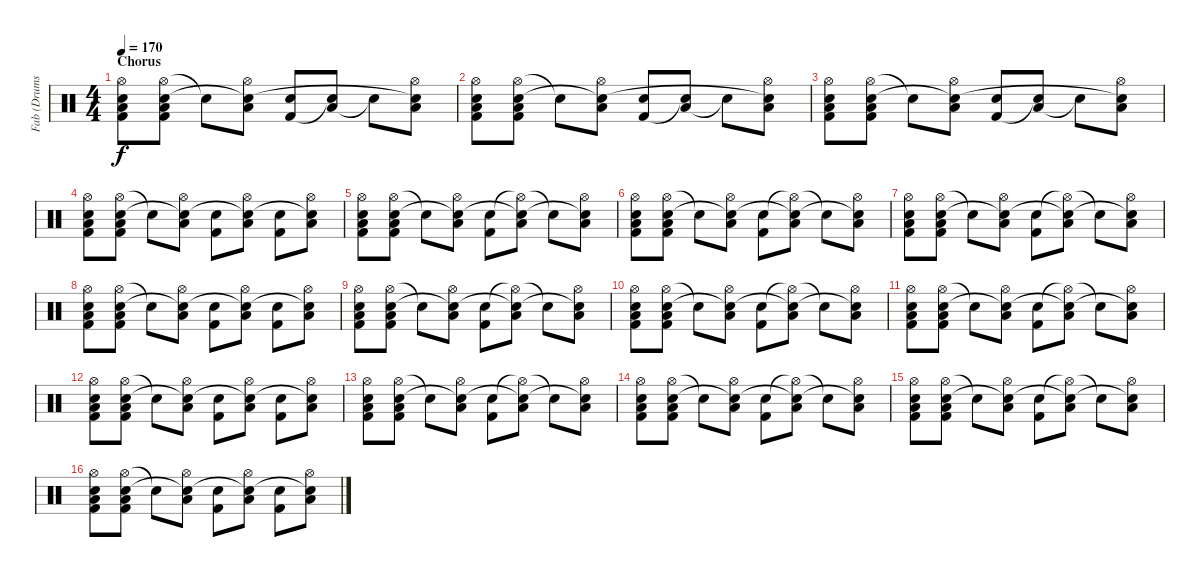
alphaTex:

\track ("Fab (Drums)" "Fab (Drums") {instrument percussion}
\staff {score}
\articulation defaults
\ts (4 4)
\section ("" "Chorus")
\tempo 170
\clef neutral
\ks c
("Hi-Hat (open)" "Low Floor Tom (hit)" "Electric Snare (hit)" "Kick (hit) 2").8{dy f} ("Hi-Hat (open)" "Low Floor Tom (hit)" "Electric Snare (hit)" "Kick (hit) 2").8 "Snare (hit)"{t}.8 ("Hi-Hat (open)" "Low Floor Tom (hit)" "Snare (hit)"{t}).8 ("Electric Snare (hit)" "Kick (hit) 2").8 ("Low Floor Tom (hit)" "Snare (hit)"{t}).8 "Snare (hit)"{t}.8 ("Hi-Hat (open)" "Low Floor Tom (hit)" "Snare (hit)"{t}).8 |
("Hi-Hat (open)" "Low Floor Tom (hit)" "Electric Snare (hit)" "Kick (hit) 2").8 ("Hi-Hat (open)" "Low Floor Tom (hit)" "Electric Snare (hit)" "Kick (hit) 2").8 "Snare (hit)"{t}.8 ("Hi-Hat (open)" "Low Floor Tom (hit)" "Snare (hit)"{t}).8 ("Electric Snare (hit)" "Kick (hit) 2").8 ("Low Floor Tom (hit)" "Snare (hit)"{t}).8 "Snare (hit)"{t}.8 ("Hi-Hat (open)" "Low Floor Tom (hit)" "Snare (hit)"{t}).8 |
("Hi-Hat (open)" "Low Floor Tom (hit)" "Electric Snare (hit)" "Kick (hit) 2").8 ("Hi-Hat (open)" "Low Floor Tom (hit)" "Electric Snare (hit)" "Kick (hit) 2").8 "Snare (hit)"{t}.8 ("Hi-Hat (open)" "Low Floor Tom (hit)" "Snare (hit)"{t}).8 ("Electric Snare (hit)" "Kick (hit) 2").8 ("Low Floor Tom (hit)" "Snare (hit)"{t}).8 "Snare (hit)"{t}.8 ("Hi-Hat (open)" "Low Floor Tom (hit)" "Snare (hit)"{t}).8 |
("Hi-Hat (open)" "Low Floor Tom (hit)" "Electric Snare (hit)" "Kick (hit) 2").8 ("Hi-Hat (open)" "Low Floor Tom (hit)" "Electric Snare (hit)" "Kick (hit) 2").8 "Snare (hit)"{t}.8 ("Hi-Hat (open)" "Low Floor Tom (hit)" "Snare (hit)"{t}).8 ("Electric Snare (hit)" "Kick (hit) 2").8 ("Hi-Hat (open)" "Low Floor Tom (hit)" "Snare (hit)"{t}).8 ("Electric Snare (hit)" "Kick (hit) 2").8 ("Hi-Hat (open)" "Low Floor Tom (hit)" "Snare (hit)"{t}).8 |
("Hi-Hat (open)" "Low Floor Tom (hit)" "Electric Snare (hit)" "Kick (hit) 2").8 ("Hi-Hat (open)" "Low Floor Tom (hit)" "Electric Snare (hit)" "Kick (hit) 2").8 "Snare (hit)"{t}.8 ("Hi-Hat (open)" "Low Floor Tom (hit)" "Snare (hit)"{t}).8 ("Electric Snare (hit)" "Kick (hit) 2").8 ("Hi-Hat (open)"{t} "Low Floor Tom (hit)" "Snare (hit)"{t}).8 "Snare (hit)"{t}.8 ("Hi-Hat (open)" "Low Floor Tom (hit)" "Snare (hit)"{t}).8 |
("Hi-Hat (open)" "Low Floor Tom (hit)" "Electric Snare (hit)" "Kick (hit) 2").8 ("Hi-Hat (open)" "Low Floor Tom (hit)" "Electric Snare (hit)" "Kick (hit) 2").8 "Snare (hit)"{t}.8 ("Hi-Hat (open)" "Low Floor Tom (hit)" "Snare (hit)"{t}).8 ("Electric Snare (hit)" "Kick (hit) 2").8 ("Hi-Hat (open)"{t} "Low Floor Tom (hit)" "Snare (hit)"{t}).8 "Snare (hit)"{t}.8 ("Hi-Hat (open)" "Low Floor Tom (hit)" "Snare (hit)"{t}).8 |
("Hi-Hat (open)" "Low Floor Tom (hit)" "Electric Snare (hit)" "Kick (hit) 2").8 ("Hi-Hat (open)" "Low Floor Tom (hit)" "Electric Snare (hit)" "Kick (hit) 2").8 "Snare (hit)"{t}.8 ("Hi-Hat (open)" "Low Floor Tom (hit)" "Snare (hit)"{t}).8 ("Electric Snare (hit)" "Kick (hit) 2").8 ("Hi-Hat (open)"{t} "Low Floor Tom (hit)" "Snare (hit)"{t}).8 "Snare (hit)"{t}.8 ("Hi-Hat (open)" "Low Floor Tom (hit)" "Snare (hit)"{t}).8 |
("Hi-Hat (open)" "Low Floor Tom (hit)" "Electric Snare (hit)" "Kick (hit) 2").8 ("Hi-Hat (open)" "Low Floor Tom (hit)" "Electric Snare (hit)" "Kick (hit) 2").8 "Snare (hit)"{t}.8 ("Hi-Hat (open)" "Low Floor Tom (hit)" "Snare (hit)"{t}).8 ("Electric Snare (hit)" "Kick (hit) 2").8 ("Hi-Hat (open)" "Low Floor Tom (hit)" "Snare (hit)"{t}).8 ("Electric Snare (hit)" "Kick (hit) 2").8 ("Hi-Hat (open)" "Low Floor Tom (hit)" "Snare (hit)"{t}).8 |
("Hi-Hat (open)" "Low Floor Tom (hit)" "Electric Snare (hit)" "Kick (hit) 2").8 ("Hi-Hat (open)" "Low Floor Tom (hit)" "Electric Snare (hit)" "Kick (hit) 2").8 "Snare (hit)"{t}.8 ("Hi-Hat (open)" "Low Floor Tom (hit)" "Snare (hit)"{t}).8 ("Electric Snare (hit)" "Kick (hit) 2").8 ("Hi-Hat (open)"{t} "Low Floor Tom (hit)" "Snare (hit)"{t}).8 "Snare (hit)"{t}.8 ("Hi-Hat (open)" "Low Floor Tom (hit)" "Snare (hit)"{t}).8 |
("Hi-Hat (open)" "Low Floor Tom (hit)" "Electric Snare (hit)" "Kick (hit) 2").8 ("Hi-Hat (open)" "Low Floor Tom (hit)" "Electric Snare (hit)" "Kick (hit) 2").8 "Snare (hit)"{t}.8 ("Hi-Hat (open)" "Low Floor Tom (hit)" "Snare (hit)"{t}).8 ("Electric Snare (hit)" "Kick (hit) 2").8 ("Hi-Hat (open)"{t} "Low Floor Tom (hit)" "Snare (hit)"{t}).8 "Snare (hit)"{t}.8 ("Hi-Hat (open)" "Low Floor Tom (hit)" "Snare (hit)"{t}).8 |
("Hi-Hat (open)" "Low Floor Tom (hit)" "Electric Snare (hit)" "Kick (hit) 2").8 ("Hi-Hat (open)" "Low Floor Tom (hit)" "Electric Snare (hit)" "Kick (hit) 2").8 "Snare (hit)"{t}.8 ("Hi-Hat (open)" "Low Floor Tom (hit)" "Snare (hit)"{t}).8 ("Electric Snare (hit)" "Kick (hit) 2").8 ("Hi-Hat (open)"{t} "Low Floor Tom (hit)" "Snare (hit)"{t}).8 "Snare (hit)"{t}.8 ("Hi-Hat (open)" "Low Floor Tom (hit)" "Snare (hit)"{t}).8 |
("Hi-Hat (open)" "Low Floor Tom (hit)" "Electric Snare (hit)" "Kick (hit) 2").8 ("Hi-Hat (open)" "Low Floor Tom (hit)" "Electric Snare (hit)" "Kick (hit) 2").8 "Snare (hit)"{t}.8 ("Hi-Hat (open)" "Low Floor Tom (hit)" "Snare (hit)"{t}).8 ("Electric Snare (hit)" "Kick (hit) 2").8 ("Hi-Hat (open)" "Low Floor Tom (hit)" "Snare (hit)"{t}).8 ("Electric Snare (hit)" "Kick (hit) 2").8 ("Hi-Hat (open)" "Low Floor Tom (hit)" "Snare (hit)"{t}).8 |
("Hi-Hat (open)" "Low Floor Tom (hit)" "Electric Snare (hit)" "Kick (hit) 2").8 ("Hi-Hat (open)" "Low Floor Tom (hit)" "Electric Snare (hit)" "Kick (hit) 2").8 "Snare (hit)"{t}.8 ("Hi-Hat (open)" "Low Floor Tom (hit)" "Snare (hit)"{t}).8 ("Electric Snare (hit)" "Kick (hit) 2").8 ("Hi-Hat (open)"{t} "Low Floor Tom (hit)" "Snare (hit)"{t}).8 "Snare (hit)"{t}.8 ("Hi-Hat (open)" "Low Floor Tom (hit)" "Snare (hit)"{t}).8 |
("Hi-Hat (open)" "Low Floor Tom (hit)" "Electric Snare (hit)" "Kick (hit) 2").8 ("Hi-Hat (open)" "Low Floor Tom (hit)" "Electric Snare (hit)" "Kick (hit) 2").8 "Snare (hit)"{t}.8 ("Hi-Hat (open)" "Low Floor Tom (hit)" "Snare (hit)"{t}).8 ("Electric Snare (hit)" "Kick (hit) 2").8 ("Hi-Hat (open)"{t} "Low Floor Tom (hit)" "Snare (hit)"{t}).8 "Snare (hit)"{t}.8 ("Hi-Hat (open)" "Low Floor Tom (hit)" "Snare (hit)"{t}).8 |
("Hi-Hat (open)" "Low Floor Tom (hit)" "Electric Snare (hit)" "Kick (hit) 2").8 ("Hi-Hat (open)" "Low Floor Tom (hit)" "Electric Snare (hit)" "Kick (hit) 2").8 "Snare (hit)"{t}.8 ("Hi-Hat (open)" "Low Floor Tom (hit)" "Snare (hit)"{t}).8 ("Electric Snare (hit)" "Kick (hit) 2").8 ("Hi-Hat (open)"{t} "Low Floor Tom (hit)" "Snare (hit)"{t}).8 "Snare (hit)"{t}.8 ("Hi-Hat (open)" "Low Floor Tom (hit)" "Snare (hit)"{t}).8 |
("Hi-Hat (open)" "Low Floor Tom (hit)" "Electric Snare (hit)" "Kick (hit) 2").8 ("Hi-Hat (open)" "Low Floor Tom (hit)" "Electric Snare (hit)" "Kick (hit) 2").8 "Snare (hit)"{t}.8 ("Hi-Hat (open)" "Low Floor Tom (hit)" "Snare (hit)"{t}).8 ("Electric Snare (hit)" "Kick (hit) 2").8 ("Hi-Hat (open)" "Low Floor Tom (hit)" "Snare (hit)"{t}).8 ("Electric Snare (hit)" "Kick (hit) 2").8 ("Hi-Hat (open)" "Low Floor Tom (hit)" "Snare (hit)"{t}).8
